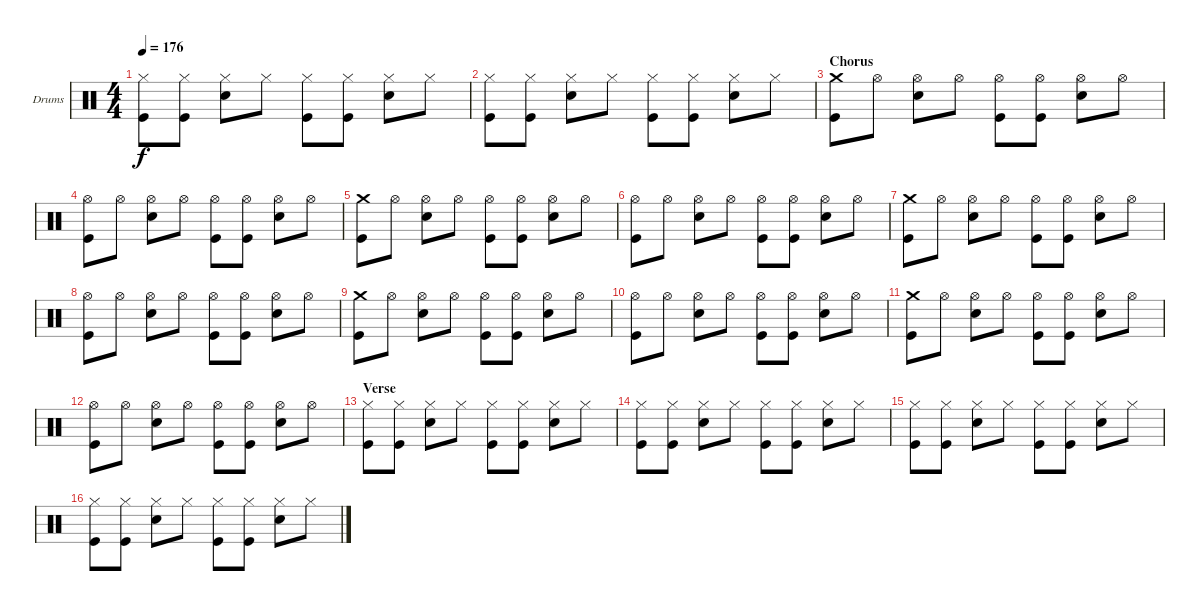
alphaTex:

\defaultSystemsLayout 4
\bracketExtendMode groupsimilarinstruments
\firstSystemTrackNameOrientation horizontal
\otherSystemsTrackNameOrientation horizontal
\track ("Drumkit" "Drums") {instrument percussion}
\staff {score}
\articulation defaults
\ts (4 4)
\tempo 176
\clef neutral
\scale
1.02648
\ks c
("Hi-Hat (closed)" "Kick (hit)").8{dy f} ("Hi-Hat (closed)" "Kick (hit)").8 ("Hi-Hat (closed)" "Snare (hit) 2").8 "Hi-Hat (closed)".8 ("Hi-Hat (closed)" "Kick (hit)").8 ("Hi-Hat (closed)" "Kick (hit)").8 ("Hi-Hat (closed)" "Snare (hit) 2").8 "Hi-Hat (closed)".8 |
\scale
0.973518 ("Hi-Hat (closed)" "Kick (hit)").8 ("Hi-Hat (closed)" "Kick (hit)").8 ("Hi-Hat (closed)" "Snare (hit) 2").8 "Hi-Hat (closed)".8 ("Hi-Hat (closed)" "Kick (hit)").8 ("Hi-Hat (closed)" "Kick (hit)").8 ("Hi-Hat (closed)" "Snare (hit) 2").8 "Hi-Hat (closed)".8 |
\section ("" "Chorus")
\scale
1.02648 ("Crash medium (hit)" "Kick (hit)").8 "Hi-Hat (open)".8 ("Hi-Hat (open)" "Snare (hit) 2").8 "Hi-Hat (open)".8 ("Hi-Hat (open)" "Kick (hit)").8 ("Hi-Hat (open)" "Kick (hit)").8 ("Hi-Hat (open)" "Snare (hit) 2").8 "Hi-Hat (open)".8 |
\scale
0.973518 ("Hi-Hat (open)" "Kick (hit)").8 "Hi-Hat (open)".8 ("Hi-Hat (open)" "Snare (hit) 2").8 "Hi-Hat (open)".8 ("Hi-Hat (open)" "Kick (hit)").8 ("Hi-Hat (open)" "Kick (hit)").8 ("Hi-Hat (open)" "Snare (hit) 2").8 "Hi-Hat (open)".8 |
\scale
1.02648 ("Crash medium (hit)" "Kick (hit)").8 "Hi-Hat (open)".8 ("Hi-Hat (open)" "Snare (hit) 2").8 "Hi-Hat (open)".8 ("Hi-Hat (open)" "Kick (hit)").8 ("Hi-Hat (open)" "Kick (hit)").8 ("Hi-Hat (open)" "Snare (hit) 2").8 "Hi-Hat (open)".8 |
\scale
0.973518 ("Hi-Hat (open)" "Kick (hit)").8 "Hi-Hat (open)".8 ("Hi-Hat (open)" "Snare (hit) 2").8 "Hi-Hat (open)".8 ("Hi-Hat (open)" "Kick (hit)").8 ("Hi-Hat (open)" "Kick (hit)").8 ("Hi-Hat (open)" "Snare (hit) 2").8 "Hi-Hat (open)".8 |
\scale
1.02648 ("Crash medium (hit)" "Kick (hit)").8 "Hi-Hat (open)".8 ("Hi-Hat (open)" "Snare (hit) 2").8 "Hi-Hat (open)".8 ("Hi-Hat (open)" "Kick (hit)").8 ("Hi-Hat (open)" "Kick (hit)").8 ("Hi-Hat (open)" "Snare (hit) 2").8 "Hi-Hat (open)".8 |
\scale
0.973518 ("Hi-Hat (open)" "Kick (hit)").8 "Hi-Hat (open)".8 ("Hi-Hat (open)" "Snare (hit) 2").8 "Hi-Hat (open)".8 ("Hi-Hat (open)" "Kick (hit)").8 ("Hi-Hat (open)" "Kick (hit)").8 ("Hi-Hat (open)" "Snare (hit) 2").8 "Hi-Hat (open)".8 |
\scale
1.02648 ("Crash medium (hit)" "Kick (hit)").8 "Hi-Hat (open)".8 ("Hi-Hat (open)" "Snare (hit) 2").8 "Hi-Hat (open)".8 ("Hi-Hat (open)" "Kick (hit)").8 ("Hi-Hat (open)" "Kick (hit)").8 ("Hi-Hat (open)" "Snare (hit) 2").8 "Hi-Hat (open)".8 |
\scale
0.973518 ("Hi-Hat (open)" "Kick (hit)").8 "Hi-Hat (open)".8 ("Hi-Hat (open)" "Snare (hit) 2").8 "Hi-Hat (open)".8 ("Hi-Hat (open)" "Kick (hit)").8 ("Hi-Hat (open)" "Kick (hit)").8 ("Hi-Hat (open)" "Snare (hit) 2").8 "Hi-Hat (open)".8 |
\scale
1.02648 ("Crash medium (hit)" "Kick (hit)").8 "Hi-Hat (open)".8 ("Hi-Hat (open)" "Snare (hit) 2").8 "Hi-Hat (open)".8 ("Hi-Hat (open)" "Kick (hit)").8 ("Hi-Hat (open)" "Kick (hit)").8 ("Hi-Hat (open)" "Snare (hit) 2").8 "Hi-Hat (open)".8 |
\scale
0.973518 ("Hi-Hat (open)" "Kick (hit)").8 "Hi-Hat (open)".8 ("Hi-Hat (open)" "Snare (hit) 2").8 "Hi-Hat (open)".8 ("Hi-Hat (open)" "Kick (hit)").8 ("Hi-Hat (open)" "Kick (hit)").8 ("Hi-Hat (open)" "Snare (hit) 2").8 "Hi-Hat (open)".8 |
\section ("" "Verse")
\scale
1.02648 ("Hi-Hat (closed)" "Kick (hit)").8 ("Hi-Hat (closed)" "Kick (hit)").8 ("Hi-Hat (closed)" "Snare (hit) 2").8 "Hi-Hat (closed)".8 ("Hi-Hat (closed)" "Kick (hit)").8 ("Hi-Hat (closed)" "Kick (hit)").8 ("Hi-Hat (closed)" "Snare (hit) 2").8 "Hi-Hat (closed)".8 |
\scale
0.973518 ("Hi-Hat (closed)" "Kick (hit)").8 ("Hi-Hat (closed)" "Kick (hit)").8 ("Hi-Hat (closed)" "Snare (hit) 2").8 "Hi-Hat (closed)".8 ("Hi-Hat (closed)" "Kick (hit)").8 ("Hi-Hat (closed)" "Kick (hit)").8 ("Hi-Hat (closed)" "Snare (hit) 2").8 "Hi-Hat (closed)".8 |
\scale
1.02648 ("Hi-Hat (closed)" "Kick (hit)").8 ("Hi-Hat (closed)" "Kick (hit)").8 ("Hi-Hat (closed)" "Snare (hit) 2").8 "Hi-Hat (closed)".8 ("Hi-Hat (closed)" "Kick (hit)").8 ("Hi-Hat (closed)" "Kick (hit)").8 ("Hi-Hat (closed)" "Snare (hit) 2").8 "Hi-Hat (closed)".8 |
\scale
0.973518 ("Hi-Hat (closed)" "Kick (hit)").8 ("Hi-Hat (closed)" "Kick (hit)").8 ("Hi-Hat (closed)" "Snare (hit) 2").8 "Hi-Hat (closed)".8 ("Hi-Hat (closed)" "Kick (hit)").8 ("Hi-Hat (closed)" "Kick (hit)").8 ("Hi-Hat (closed)" "Snare (hit) 2").8 "Hi-Hat (closed)".8
